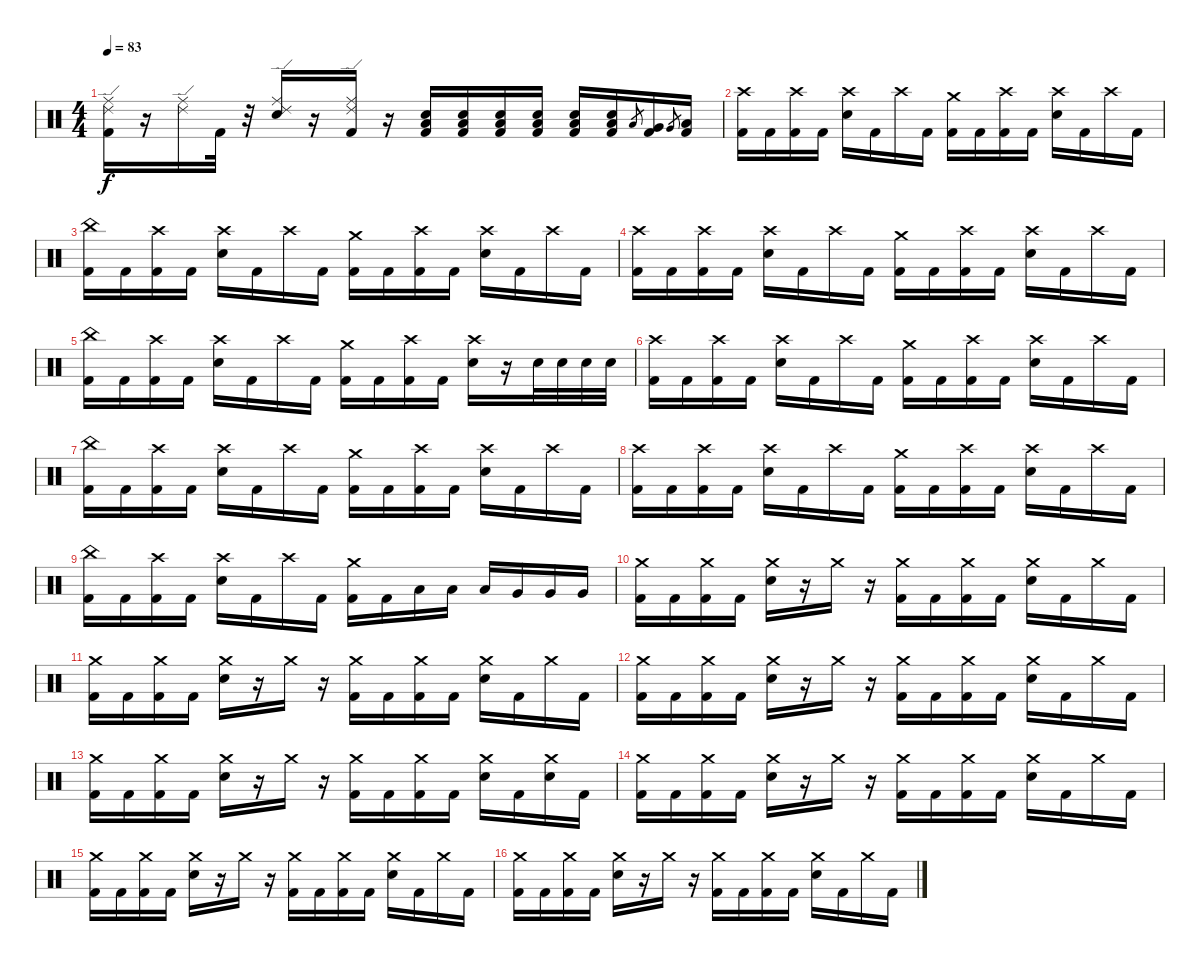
\track "" {instrument percussion}
\staff {score}
\articulation defaults
\ts (4 4)
\tempo 83
\clef neutral
\ks c
("Ride (edge) 2" "Ride (middle)" "Kick (hit) 2").16{dy f} r.16 ("Ride (edge) 2" "Ride (middle)").16 "Kick (hit) 2".32 r.32 ("Ride (edge) 2" "Ride (middle)" "Snare (hit) 2").16 r.16 ("Ride (edge) 2" "Ride (middle)" "Kick (hit) 2").16 r.16 ("Snare (hit) 2" "Low Tom (hit)" "Kick (hit) 2").16 ("Snare (hit) 2" "Low Tom (hit)" "Kick (hit) 2").16 ("Snare (hit) 2" "Low Tom (hit)" "Kick (hit) 2").16 ("Snare (hit) 2" "Low Tom (hit)" "Kick (hit) 2").16 ("Snare (hit) 2" "Low Tom (hit)" "Kick (hit) 2").16 ("Snare (hit) 2" "Low Tom (hit)" "Kick (hit) 2").16 "Low Floor Tom (hit)".8{gr} ("Very Low Tom (hit)" "Kick (hit) 2").16 "Very Low Tom (hit)".8{gr} ("Low Tom (hit)" "Kick (hit) 2").16 |
("Crash high (hit)" "Kick (hit) 2").16 "Kick (hit) 2".16 ("Crash high (hit)" "Kick (hit) 2").16 "Kick (hit) 2".16 ("Crash high (hit)" "Snare (hit) 2").16 "Kick (hit) 2".16 "Crash high (hit)".16 "Kick (hit) 2".16 ("Crash medium (hit)" "Kick (hit) 2").16 "Kick (hit) 2".16 ("Crash high (hit)" "Kick (hit) 2").16 "Kick (hit) 2".16 ("Crash high (hit)" "Snare (hit) 2").16 "Kick (hit) 2".16 "Crash high (hit)".16 "Kick (hit) 2".16 |
("China (hit)" "Kick (hit) 2").16 "Kick (hit) 2".16 ("Crash high (hit)" "Kick (hit) 2").16 "Kick (hit) 2".16 ("Crash high (hit)" "Snare (hit) 2").16 "Kick (hit) 2".16 "Crash high (hit)".16 "Kick (hit) 2".16 ("Crash medium (hit)" "Kick (hit) 2").16 "Kick (hit) 2".16 ("Crash high (hit)" "Kick (hit) 2").16 "Kick (hit) 2".16 ("Crash high (hit)" "Snare (hit) 2").16 "Kick (hit) 2".16 "Crash high (hit)".16 "Kick (hit) 2".16 |
("Crash high (hit)" "Kick (hit) 2").16 "Kick (hit) 2".16 ("Crash high (hit)" "Kick (hit) 2").16 "Kick (hit) 2".16 ("Crash high (hit)" "Snare (hit) 2").16 "Kick (hit) 2".16 "Crash high (hit)".16 "Kick (hit) 2".16 ("Crash medium (hit)" "Kick (hit) 2").16 "Kick (hit) 2".16 ("Crash high (hit)" "Kick (hit) 2").16 "Kick (hit) 2".16 ("Crash high (hit)" "Snare (hit) 2").16 "Kick (hit) 2".16 "Crash high (hit)".16 "Kick (hit) 2".16 |
("China (hit)" "Kick (hit) 2").16 "Kick (hit) 2".16 ("Crash high (hit)" "Kick (hit) 2").16 "Kick (hit) 2".16 ("Crash high (hit)" "Snare (hit) 2").16 "Kick (hit) 2".16 "Crash high (hit)".16 "Kick (hit) 2".16 ("Crash medium (hit)" "Kick (hit) 2").16 "Kick (hit) 2".16 ("Crash high (hit)" "Kick (hit) 2").16 "Kick (hit) 2".16 ("Crash high (hit)" "Snare (hit) 2").16 r.16 "Snare (hit) 2".32 "Snare (hit) 2".32 "Snare (hit) 2".32 "Snare (hit) 2".32 |
("Crash high (hit)" "Kick (hit) 2").16 "Kick (hit) 2".16 ("Crash high (hit)" "Kick (hit) 2").16 "Kick (hit) 2".16 ("Crash high (hit)" "Snare (hit) 2").16 "Kick (hit) 2".16 "Crash high (hit)".16 "Kick (hit) 2".16 ("Crash medium (hit)" "Kick (hit) 2").16 "Kick (hit) 2".16 ("Crash high (hit)" "Kick (hit) 2").16 "Kick (hit) 2".16 ("Crash high (hit)" "Snare (hit) 2").16 "Kick (hit) 2".16 "Crash high (hit)".16 "Kick (hit) 2".16 |
("China (hit)" "Kick (hit) 2").16 "Kick (hit) 2".16 ("Crash high (hit)" "Kick (hit) 2").16 "Kick (hit) 2".16 ("Crash high (hit)" "Snare (hit) 2").16 "Kick (hit) 2".16 "Crash high (hit)".16 "Kick (hit) 2".16 ("Crash medium (hit)" "Kick (hit) 2").16 "Kick (hit) 2".16 ("Crash high (hit)" "Kick (hit) 2").16 "Kick (hit) 2".16 ("Crash high (hit)" "Snare (hit) 2").16 "Kick (hit) 2".16 "Crash high (hit)".16 "Kick (hit) 2".16 |
("Crash high (hit)" "Kick (hit) 2").16 "Kick (hit) 2".16 ("Crash high (hit)" "Kick (hit) 2").16 "Kick (hit) 2".16 ("Crash high (hit)" "Snare (hit) 2").16 "Kick (hit) 2".16 "Crash high (hit)".16 "Kick (hit) 2".16 ("Crash medium (hit)" "Kick (hit) 2").16 "Kick (hit) 2".16 ("Crash high (hit)" "Kick (hit) 2").16 "Kick (hit) 2".16 ("Crash high (hit)" "Snare (hit) 2").16 "Kick (hit) 2".16 "Crash high (hit)".16 "Kick (hit) 2".16 |
("China (hit)" "Kick (hit) 2").16 "Kick (hit) 2".16 ("Crash high (hit)" "Kick (hit) 2").16 "Kick (hit) 2".16 ("Crash high (hit)" "Snare (hit) 2").16 "Kick (hit) 2".16 "Crash high (hit)".16 "Kick (hit) 2".16 ("Crash medium (hit)" "Kick (hit) 2").16 "Kick (hit) 2".16 "Low Floor Tom (hit)".16 "Low Floor Tom (hit)".16 "Low Floor Tom (hit)".16 "Very Low Tom (hit)".16 "Very Low Tom (hit)".16 "Very Low Tom (hit)".16 |
("Crash medium (hit)" "Kick (hit) 2").16 "Kick (hit) 2".16 ("Crash medium (hit)" "Kick (hit) 2").16 "Kick (hit) 2".16 ("Crash medium (hit)" "Snare (hit) 2").16 r.16 "Crash medium (hit)".16 r.16 ("Crash medium (hit)" "Kick (hit) 2").16 "Kick (hit) 2".16 ("Crash medium (hit)" "Kick (hit) 2").16 "Kick (hit) 2".16 ("Crash medium (hit)" "Snare (hit) 2").16 "Kick (hit) 2".16 "Crash medium (hit)".16 "Kick (hit) 2".16 |
("Crash medium (hit)" "Kick (hit) 2").16 "Kick (hit) 2".16 ("Crash medium (hit)" "Kick (hit) 2").16 "Kick (hit) 2".16 ("Crash medium (hit)" "Snare (hit) 2").16 r.16 "Crash medium (hit)".16 r.16 ("Crash medium (hit)" "Kick (hit) 2").16 "Kick (hit) 2".16 ("Crash medium (hit)" "Kick (hit) 2").16 "Kick (hit) 2".16 ("Crash medium (hit)" "Snare (hit) 2").16 "Kick (hit) 2".16 "Crash medium (hit)".16 "Kick (hit) 2".16 |
("Crash medium (hit)" "Kick (hit) 2").16 "Kick (hit) 2".16 ("Crash medium (hit)" "Kick (hit) 2").16 "Kick (hit) 2".16 ("Crash medium (hit)" "Snare (hit) 2").16 r.16 "Crash medium (hit)".16 r.16 ("Crash medium (hit)" "Kick (hit) 2").16 "Kick (hit) 2".16 ("Crash medium (hit)" "Kick (hit) 2").16 "Kick (hit) 2".16 ("Crash medium (hit)" "Snare (hit) 2").16 "Kick (hit) 2".16 "Crash medium (hit)".16 "Kick (hit) 2".16 |
("Crash medium (hit)" "Kick (hit) 2").16 "Kick (hit) 2".16 ("Crash medium (hit)" "Kick (hit) 2").16 "Kick (hit) 2".16 ("Crash medium (hit)" "Snare (hit) 2").16 r.16 "Crash medium (hit)".16 r.16 ("Crash medium (hit)" "Kick (hit) 2").16 "Kick (hit) 2".16 ("Crash medium (hit)" "Kick (hit) 2").16 "Kick (hit) 2".16 ("Crash medium (hit)" "Snare (hit) 2").16 "Kick (hit) 2".16 ("Crash medium (hit)" "Snare (hit) 2").16 "Kick (hit) 2".16 |
("Crash medium (hit)" "Kick (hit) 2").16 "Kick (hit) 2".16 ("Crash medium (hit)" "Kick (hit) 2").16 "Kick (hit) 2".16 ("Crash medium (hit)" "Snare (hit) 2").16 r.16 "Crash medium (hit)".16 r.16 ("Crash medium (hit)" "Kick (hit) 2").16 "Kick (hit) 2".16 ("Crash medium (hit)" "Kick (hit) 2").16 "Kick (hit) 2".16 ("Crash medium (hit)" "Snare (hit) 2").16 "Kick (hit) 2".16 "Crash medium (hit)".16 "Kick (hit) 2".16 |
("Crash medium (hit)" "Kick (hit) 2").16 "Kick (hit) 2".16 ("Crash medium (hit)" "Kick (hit) 2").16 "Kick (hit) 2".16 ("Crash medium (hit)" "Snare (hit) 2").16 r.16 "Crash medium (hit)".16 r.16 ("Crash medium (hit)" "Kick (hit) 2").16 "Kick (hit) 2".16 ("Crash medium (hit)" "Kick (hit) 2").16 "Kick (hit) 2".16 ("Crash medium (hit)" "Snare (hit) 2").16 "Kick (hit) 2".16 "Crash medium (hit)".16 "Kick (hit) 2".16 |
("Crash medium (hit)" "Kick (hit) 2").16 "Kick (hit) 2".16 ("Crash medium (hit)" "Kick (hit) 2").16 "Kick (hit) 2".16 ("Crash medium (hit)" "Snare (hit) 2").16 r.16 "Crash medium (hit)".16 r.16 ("Crash medium (hit)" "Kick (hit) 2").16 "Kick (hit) 2".16 ("Crash medium (hit)" "Kick (hit) 2").16 "Kick (hit) 2".16 ("Crash medium (hit)" "Snare (hit) 2").16 "Kick (hit) 2".16 "Crash medium (hit)".16 "Kick (hit) 2".16
